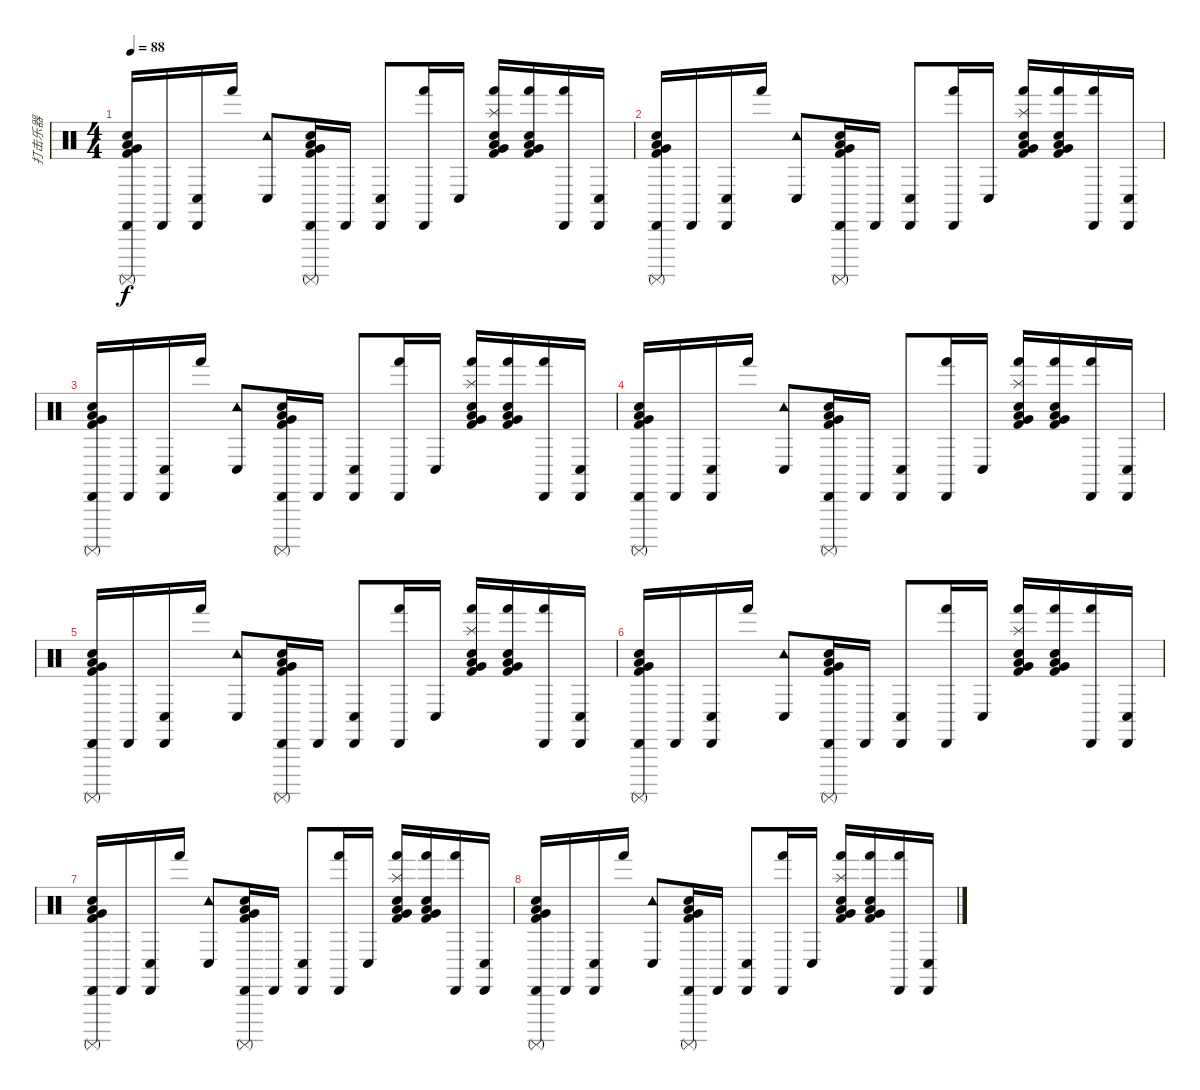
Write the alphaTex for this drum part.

\track ("打击乐器" "打击乐器") {instrument percussion}
\staff {score}
\articulation defaults
\ts (4 4)
\tempo 88
\clef neutral
\ks c
("Cabasa (hit)" "Surdo (mute)" "Electric Snare (hit)" "Very Low Tom (hit)" "Low Floor Tom (hit)" "Kick (hit) 2").16{bu 240 dy f} "Cabasa (hit)".16 ("Cabasa (hit)" "Conga low (hit)").16 "Hand (hit)".16 ("Tambourine (hit)" "Conga low (hit)").8 ("Cabasa (hit)" "Surdo (mute)" "Electric Snare (hit)" "Very Low Tom (hit)" "Low Floor Tom (hit)" "Kick (hit) 2").16{bd 60} "Cabasa (hit)".16 ("Cabasa (hit)" "Conga low (hit)").8 ("Cabasa (hit)" "Hand (hit)").16 "Conga low (hit)".16 ("Splash (hit)" "Hand (hit)" "Electric Snare (hit)" "Very Low Tom (hit)" "Low Floor Tom (hit)" "Kick (hit) 2").16{bu 60} ("Hand (hit)" "Electric Snare (hit)" "Very Low Tom (hit)" "Low Floor Tom (hit)" "Kick (hit) 2").16{bd 60} ("Cabasa (hit)" "Hand (hit)").16 ("Cabasa (hit)" "Conga low (hit)").16 |
("Cabasa (hit)" "Surdo (mute)" "Electric Snare (hit)" "Very Low Tom (hit)" "Low Floor Tom (hit)" "Kick (hit) 2").16{bu 240} "Cabasa (hit)".16 ("Cabasa (hit)" "Conga low (hit)").16 "Hand (hit)".16 ("Tambourine (hit)" "Conga low (hit)").8 ("Cabasa (hit)" "Surdo (mute)" "Electric Snare (hit)" "Very Low Tom (hit)" "Low Floor Tom (hit)" "Kick (hit) 2").16{bu 240} "Cabasa (hit)".16 ("Cabasa (hit)" "Conga low (hit)").8 ("Cabasa (hit)" "Hand (hit)").16 "Conga low (hit)".16 ("Splash (hit)" "Hand (hit)" "Electric Snare (hit)" "Very Low Tom (hit)" "Low Floor Tom (hit)" "Kick (hit) 2").16{bu 60} ("Hand (hit)" "Electric Snare (hit)" "Very Low Tom (hit)" "Low Floor Tom (hit)" "Kick (hit) 2").16{bd 60} ("Cabasa (hit)" "Hand (hit)").16 ("Cabasa (hit)" "Conga low (hit)").16 |
("Cabasa (hit)" "Surdo (mute)" "Electric Snare (hit)" "Very Low Tom (hit)" "Low Floor Tom (hit)" "Kick (hit) 2").16{bu 240} "Cabasa (hit)".16 ("Cabasa (hit)" "Conga low (hit)").16 "Hand (hit)".16 ("Tambourine (hit)" "Conga low (hit)").8 ("Cabasa (hit)" "Surdo (mute)" "Electric Snare (hit)" "Very Low Tom (hit)" "Low Floor Tom (hit)" "Kick (hit) 2").16{bd 60} "Cabasa (hit)".16 ("Cabasa (hit)" "Conga low (hit)").8 ("Cabasa (hit)" "Hand (hit)").16 "Conga low (hit)".16 ("Splash (hit)" "Hand (hit)" "Electric Snare (hit)" "Very Low Tom (hit)" "Low Floor Tom (hit)" "Kick (hit) 2").16{bu 60} ("Hand (hit)" "Electric Snare (hit)" "Very Low Tom (hit)" "Low Floor Tom (hit)" "Kick (hit) 2").16{bd 60} ("Cabasa (hit)" "Hand (hit)").16 ("Cabasa (hit)" "Conga low (hit)").16 |
("Cabasa (hit)" "Surdo (mute)" "Electric Snare (hit)" "Very Low Tom (hit)" "Low Floor Tom (hit)" "Kick (hit) 2").16{bu 240} "Cabasa (hit)".16 ("Cabasa (hit)" "Conga low (hit)").16 "Hand (hit)".16 ("Tambourine (hit)" "Conga low (hit)").8 ("Cabasa (hit)" "Surdo (mute)" "Electric Snare (hit)" "Very Low Tom (hit)" "Low Floor Tom (hit)" "Kick (hit) 2").16{bu 240} "Cabasa (hit)".16 ("Cabasa (hit)" "Conga low (hit)").8 ("Cabasa (hit)" "Hand (hit)").16 "Conga low (hit)".16 ("Splash (hit)" "Hand (hit)" "Electric Snare (hit)" "Very Low Tom (hit)" "Low Floor Tom (hit)" "Kick (hit) 2").16{bu 60} ("Hand (hit)" "Electric Snare (hit)" "Very Low Tom (hit)" "Low Floor Tom (hit)" "Kick (hit) 2").16{bd 60} ("Cabasa (hit)" "Hand (hit)").16 ("Cabasa (hit)" "Conga low (hit)").16 |
("Cabasa (hit)" "Surdo (mute)" "Electric Snare (hit)" "Very Low Tom (hit)" "Low Floor Tom (hit)" "Kick (hit) 2").16{bu 240} "Cabasa (hit)".16 ("Cabasa (hit)" "Conga low (hit)").16 "Hand (hit)".16 ("Tambourine (hit)" "Conga low (hit)").8 ("Cabasa (hit)" "Surdo (mute)" "Electric Snare (hit)" "Very Low Tom (hit)" "Low Floor Tom (hit)" "Kick (hit) 2").16{bd 60} "Cabasa (hit)".16 ("Cabasa (hit)" "Conga low (hit)").8 ("Cabasa (hit)" "Hand (hit)").16 "Conga low (hit)".16 ("Splash (hit)" "Hand (hit)" "Electric Snare (hit)" "Very Low Tom (hit)" "Low Floor Tom (hit)" "Kick (hit) 2").16{bu 60} ("Hand (hit)" "Electric Snare (hit)" "Very Low Tom (hit)" "Low Floor Tom (hit)" "Kick (hit) 2").16{bd 60} ("Cabasa (hit)" "Hand (hit)").16 ("Cabasa (hit)" "Conga low (hit)").16 |
("Cabasa (hit)" "Surdo (mute)" "Electric Snare (hit)" "Very Low Tom (hit)" "Low Floor Tom (hit)" "Kick (hit) 2").16{bu 240} "Cabasa (hit)".16 ("Cabasa (hit)" "Conga low (hit)").16 "Hand (hit)".16 ("Tambourine (hit)" "Conga low (hit)").8 ("Cabasa (hit)" "Surdo (mute)" "Electric Snare (hit)" "Very Low Tom (hit)" "Low Floor Tom (hit)" "Kick (hit) 2").16{bu 240} "Cabasa (hit)".16 ("Cabasa (hit)" "Conga low (hit)").8 ("Cabasa (hit)" "Hand (hit)").16 "Conga low (hit)".16 ("Splash (hit)" "Hand (hit)" "Electric Snare (hit)" "Very Low Tom (hit)" "Low Floor Tom (hit)" "Kick (hit) 2").16{bu 60} ("Hand (hit)" "Electric Snare (hit)" "Very Low Tom (hit)" "Low Floor Tom (hit)" "Kick (hit) 2").16{bd 60} ("Cabasa (hit)" "Hand (hit)").16 ("Cabasa (hit)" "Conga low (hit)").16 |
("Cabasa (hit)" "Surdo (mute)" "Electric Snare (hit)" "Very Low Tom (hit)" "Low Floor Tom (hit)" "Kick (hit) 2").16{bu 240} "Cabasa (hit)".16 ("Cabasa (hit)" "Conga low (hit)").16 "Hand (hit)".16 ("Tambourine (hit)" "Conga low (hit)").8 ("Cabasa (hit)" "Surdo (mute)" "Electric Snare (hit)" "Very Low Tom (hit)" "Low Floor Tom (hit)" "Kick (hit) 2").16{bd 60} "Cabasa (hit)".16 ("Cabasa (hit)" "Conga low (hit)").8 ("Cabasa (hit)" "Hand (hit)").16 "Conga low (hit)".16 ("Splash (hit)" "Hand (hit)" "Electric Snare (hit)" "Very Low Tom (hit)" "Low Floor Tom (hit)" "Kick (hit) 2").16{bu 60} ("Hand (hit)" "Electric Snare (hit)" "Very Low Tom (hit)" "Low Floor Tom (hit)" "Kick (hit) 2").16{bd 60} ("Cabasa (hit)" "Hand (hit)").16 ("Cabasa (hit)" "Conga low (hit)").16 |
("Cabasa (hit)" "Surdo (mute)" "Electric Snare (hit)" "Very Low Tom (hit)" "Low Floor Tom (hit)" "Kick (hit) 2").16{bu 240} "Cabasa (hit)".16 ("Cabasa (hit)" "Conga low (hit)").16 "Hand (hit)".16 ("Tambourine (hit)" "Conga low (hit)").8 ("Cabasa (hit)" "Surdo (mute)" "Electric Snare (hit)" "Very Low Tom (hit)" "Low Floor Tom (hit)" "Kick (hit) 2").16{bu 240} "Cabasa (hit)".16 ("Cabasa (hit)" "Conga low (hit)").8 ("Cabasa (hit)" "Hand (hit)").16 "Conga low (hit)".16 ("Splash (hit)" "Hand (hit)" "Electric Snare (hit)" "Very Low Tom (hit)" "Low Floor Tom (hit)" "Kick (hit) 2").16{bu 60} ("Hand (hit)" "Electric Snare (hit)" "Very Low Tom (hit)" "Low Floor Tom (hit)" "Kick (hit) 2").16{bd 60} ("Cabasa (hit)" "Hand (hit)").16 ("Cabasa (hit)" "Conga low (hit)").16
